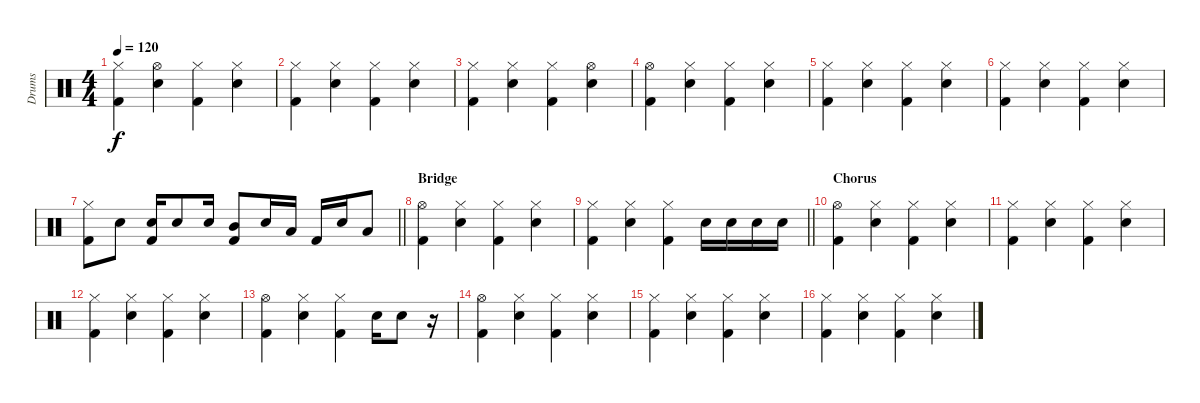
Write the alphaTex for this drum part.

\track ("Drums" "Drums") {instrument percussion}
\staff {score}
\articulation defaults
\ts (4 4)
\tempo 120
\clef neutral
\ks c
("Hi-Hat (closed)" "Kick (hit) 2").4{dy f} ("Hi-Hat (open)" "Snare (hit) 2").4 ("Hi-Hat (closed)" "Kick (hit) 2").4 ("Hi-Hat (closed)" "Snare (hit) 2").4 |
("Hi-Hat (closed)" "Kick (hit) 2").4 ("Hi-Hat (closed)" "Snare (hit) 2").4 ("Hi-Hat (closed)" "Kick (hit) 2").4 ("Hi-Hat (closed)" "Snare (hit) 2").4 |
("Hi-Hat (closed)" "Kick (hit) 2").4 ("Hi-Hat (closed)" "Snare (hit) 2").4 ("Hi-Hat (closed)" "Kick (hit) 2").4 ("Hi-Hat (open)" "Snare (hit) 2").4 |
("Hi-Hat (open)" "Kick (hit) 2").4 ("Hi-Hat (closed)" "Snare (hit) 2").4 ("Hi-Hat (closed)" "Kick (hit) 2").4 ("Hi-Hat (closed)" "Snare (hit) 2").4 |
("Hi-Hat (closed)" "Kick (hit) 2").4 ("Hi-Hat (closed)" "Snare (hit) 2").4 ("Hi-Hat (closed)" "Kick (hit) 2").4 ("Hi-Hat (closed)" "Snare (hit) 2").4 |
("Hi-Hat (closed)" "Kick (hit) 2").4 ("Hi-Hat (closed)" "Snare (hit) 2").4 ("Hi-Hat (closed)" "Kick (hit) 2").4 ("Hi-Hat (closed)" "Snare (hit) 2").4 |
\barLineRight lightlight
("Hi-Hat (closed)" "Kick (hit) 2").8 "Snare (hit) 2".8 ("Kick (hit) 2" "Snare (hit) 2").16 "Snare (hit) 2".8 "Snare (hit) 2".16 ("Kick (hit) 2" "Mid Tom (hit)").8 "Snare (hit) 2".16 "Low Tom (hit)".16 "Kick (hit) 2".16 "Snare (hit) 2".16 "Low Floor Tom (hit)".8 |
\section ("" "Bridge")
("Hi-Hat (open)" "Kick (hit) 2").4 ("Hi-Hat (closed)" "Snare (hit) 2").4 ("Hi-Hat (closed)" "Kick (hit) 2").4 ("Hi-Hat (closed)" "Snare (hit) 2").4 |
\barLineRight lightlight
("Hi-Hat (closed)" "Kick (hit) 2").4 ("Hi-Hat (closed)" "Snare (hit) 2").4 ("Hi-Hat (closed)" "Kick (hit) 2").4 "Snare (hit) 2".16 "Snare (hit) 2".16 "Snare (hit) 2".16 "Snare (hit) 2".16 |
\section ("" "Chorus")
("Hi-Hat (open)" "Kick (hit) 2").4 ("Hi-Hat (closed)" "Snare (hit) 2").4 ("Hi-Hat (closed)" "Kick (hit) 2").4 ("Hi-Hat (closed)" "Snare (hit) 2").4 |
("Hi-Hat (closed)" "Kick (hit) 2").4 ("Hi-Hat (closed)" "Snare (hit) 2").4 ("Hi-Hat (closed)" "Kick (hit) 2").4 ("Hi-Hat (closed)" "Snare (hit) 2").4 |
("Hi-Hat (closed)" "Kick (hit) 2").4 ("Hi-Hat (closed)" "Snare (hit) 2").4 ("Hi-Hat (closed)" "Kick (hit) 2").4 ("Hi-Hat (closed)" "Snare (hit) 2").4 |
("Hi-Hat (open)" "Kick (hit) 2").4 ("Hi-Hat (closed)" "Snare (hit) 2").4 ("Hi-Hat (closed)" "Kick (hit) 2").4 "Snare (hit) 2".16 "Snare (hit) 2".8 r.16 |
("Hi-Hat (open)" "Kick (hit) 2").4 ("Hi-Hat (closed)" "Snare (hit) 2").4 ("Hi-Hat (closed)" "Kick (hit) 2").4 ("Hi-Hat (closed)" "Snare (hit) 2").4 |
("Hi-Hat (closed)" "Kick (hit) 2").4 ("Hi-Hat (closed)" "Snare (hit) 2").4 ("Hi-Hat (closed)" "Kick (hit) 2").4 ("Hi-Hat (closed)" "Snare (hit) 2").4 |
("Hi-Hat (closed)" "Kick (hit) 2").4 ("Hi-Hat (closed)" "Snare (hit) 2").4 ("Hi-Hat (closed)" "Kick (hit) 2").4 ("Hi-Hat (closed)" "Snare (hit) 2").4
